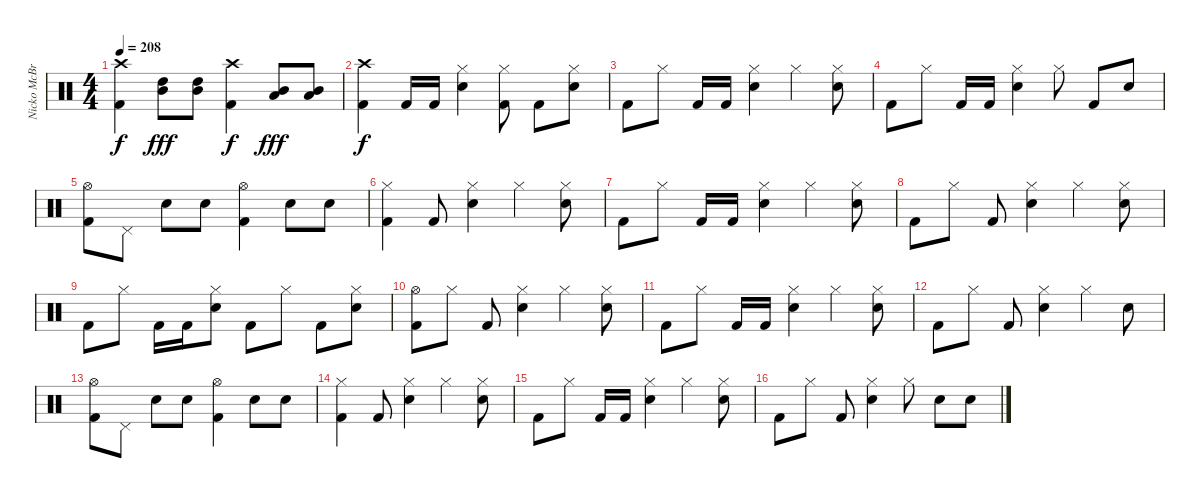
\track ("Nicko McBrain" "Nicko McBr") {instrument percussion}
\staff {score}
\articulation defaults
\ts (4 4)
\tempo 208
\clef neutral
\ks c
("Crash high (hit)" "Kick (hit) 2").4{dy f} ("High Tom (hit)" "Mid Tom (hit)").8{dy fff} ("High Tom (hit)" "Mid Tom (hit)").8 ("Crash high (hit)" "Kick (hit) 2").4{dy f} ("Mid Tom (hit)" "Low Tom (hit)").8{dy fff} ("Mid Tom (hit)" "Low Tom (hit)").8 |
("Crash high (hit)" "Kick (hit) 2").4{dy f} "Kick (hit) 2".16 "Kick (hit) 2".16 ("Hi-Hat (closed)" "Electric Snare (hit)").4 ("Hi-Hat (closed)" "Kick (hit) 2").8 "Kick (hit) 2".8 ("Hi-Hat (closed)" "Electric Snare (hit)").8 |
"Kick (hit) 2".8 "Hi-Hat (closed)".8 "Kick (hit) 2".16 "Kick (hit) 2".16 ("Hi-Hat (closed)" "Electric Snare (hit)").4 "Hi-Hat (closed)".4 ("Hi-Hat (closed)" "Electric Snare (hit)").8 |
"Kick (hit) 2".8 "Hi-Hat (closed)".8 "Kick (hit) 2".16 "Kick (hit) 2".16 ("Hi-Hat (closed)" "Electric Snare (hit)").4 "Hi-Hat (closed)".8 "Kick (hit) 2".8 "Electric Snare (hit)".8 |
("Hi-Hat (open)" "Kick (hit) 2").8 "Pedal Hi-Hat (hit)".8 "Electric Snare (hit)".8 "Electric Snare (hit)".8 ("Hi-Hat (open)" "Kick (hit) 2").4 "Electric Snare (hit)".8 "Electric Snare (hit)".8 |
("Hi-Hat (closed)" "Kick (hit) 2").4 "Kick (hit) 2".8 ("Hi-Hat (closed)" "Electric Snare (hit)").4 "Hi-Hat (closed)".4 ("Hi-Hat (closed)" "Electric Snare (hit)").8 |
"Kick (hit) 2".8 "Hi-Hat (closed)".8 "Kick (hit) 2".16 "Kick (hit) 2".16 ("Hi-Hat (closed)" "Electric Snare (hit)").4 "Hi-Hat (closed)".4 ("Hi-Hat (closed)" "Electric Snare (hit)").8 |
"Kick (hit) 2".8 "Hi-Hat (closed)".8 "Kick (hit) 2".8 ("Hi-Hat (closed)" "Electric Snare (hit)").4 "Hi-Hat (closed)".4 ("Hi-Hat (closed)" "Electric Snare (hit)").8 |
"Kick (hit) 2".8 "Hi-Hat (closed)".8 "Kick (hit) 2".16 "Kick (hit) 2".16 ("Hi-Hat (closed)" "Electric Snare (hit)").8 "Kick (hit) 2".8 "Hi-Hat (closed)".8 "Kick (hit) 2".8 ("Hi-Hat (closed)" "Electric Snare (hit)").8 |
("Hi-Hat (open)" "Kick (hit) 2").8 "Hi-Hat (closed)".8 "Kick (hit) 2".8 ("Hi-Hat (closed)" "Electric Snare (hit)").4 "Hi-Hat (closed)".4 ("Hi-Hat (closed)" "Electric Snare (hit)").8 |
"Kick (hit) 2".8 "Hi-Hat (closed)".8 "Kick (hit) 2".16 "Kick (hit) 2".16 ("Hi-Hat (closed)" "Electric Snare (hit)").4 "Hi-Hat (closed)".4 ("Hi-Hat (closed)" "Electric Snare (hit)").8 |
"Kick (hit) 2".8 "Hi-Hat (closed)".8 "Kick (hit) 2".8 ("Hi-Hat (closed)" "Electric Snare (hit)").4 "Hi-Hat (closed)".4 "Electric Snare (hit)".8 |
("Hi-Hat (open)" "Kick (hit) 2").8 "Pedal Hi-Hat (hit)".8 "Electric Snare (hit)".8 "Electric Snare (hit)".8 ("Hi-Hat (open)" "Kick (hit) 2").4 "Electric Snare (hit)".8 "Electric Snare (hit)".8 |
("Hi-Hat (closed)" "Kick (hit) 2").4 "Kick (hit) 2".8 ("Hi-Hat (closed)" "Electric Snare (hit)").4 "Hi-Hat (closed)".4 ("Hi-Hat (closed)" "Electric Snare (hit)").8 |
"Kick (hit) 2".8 "Hi-Hat (closed)".8 "Kick (hit) 2".16 "Kick (hit) 2".16 ("Hi-Hat (closed)" "Electric Snare (hit)").4 "Hi-Hat (closed)".4 ("Hi-Hat (closed)" "Electric Snare (hit)").8 |
"Kick (hit) 2".8 "Hi-Hat (closed)".8 "Kick (hit) 2".8 ("Hi-Hat (closed)" "Electric Snare (hit)").4 "Hi-Hat (closed)".8 "Electric Snare (hit)".8 "Electric Snare (hit)".8
